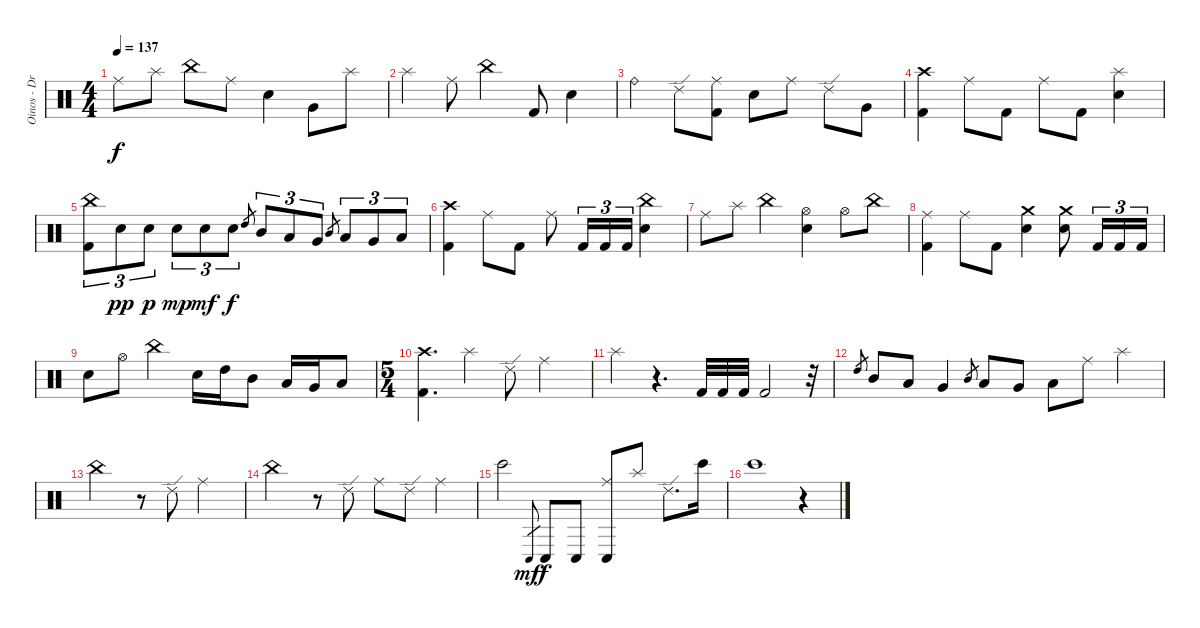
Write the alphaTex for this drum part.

\track ("Oinos - Drums" "Oinos - Dr") {instrument percussion}
\staff {score}
\articulation defaults
\ts (4 4)
\tempo 137
\clef neutral
\ks c "Ride (middle)".8{dy f} "Splash (hit)".8 "China (hit)".8 "Ride (middle)".8 "Electric Snare (hit)".4 "Very Low Tom (hit)".8 "Splash (hit)".8
|
"Splash (hit)".4 "Ride (middle)".8 "China (hit)".4 "Kick (hit) 2".8 "Electric Snare (hit)".4 |
"Ride (bell)".4 "Ride (edge) 2".8 ("Ride (middle)" "Kick (hit) 2").8 "Electric Snare (hit)".8 "Ride (middle)".8 "Ride (edge) 2".8 "Very Low Tom (hit)".8 |
("Crash high (hit)" "Kick (hit) 2").4 "Ride (middle)".8 "Kick (hit) 2".8 "Ride (middle)".8 "Kick (hit) 2".8 ("Splash (hit)" "Electric Snare (hit)").4 |
("China (hit)" "Kick (hit) 2").8{tu (3 2)} "Electric Snare (hit)".8{tu (3 2) dy pp} "Electric Snare (hit)".8{tu (3 2) dy p} "Electric Snare (hit)".8{tu (3 2) dy mp} "Electric Snare (hit)".8{tu (3 2) dy mf} "Electric Snare (hit)".8{tu (3 2) dy f} "High Tom (hit)".8{gr} "Mid Tom (hit)".8{tu (3 2)} "Low Tom (hit)".8{tu (3 2)} "Very Low Tom (hit)".8{tu (3 2)} "Mid Tom (hit)".8{gr} "Low Tom (hit)".8{tu (3 2)} "Very Low Tom (hit)".8{tu (3 2)} "Low Floor Tom (hit)".8{tu (3 2)} |
("Crash high (hit)" "Kick (hit) 2").4 "Ride (middle)".8 "Kick (hit) 2".8 "Ride (middle)".8 "Kick (hit) 2".16{tu (3 2)} "Kick (hit) 2".16{tu (3 2)} "Kick (hit) 2".16{tu (3 2)} ("China (hit)" "Electric Snare (hit)").4 |
"Ride (middle)".8 "Splash (hit)".8 "China (hit)".4 ("Hi-Hat (open)" "Electric Snare (hit)").4 "Hi-Hat (open)".8 "China (hit)".8 |
("Ride (middle)" "Kick (hit) 2").4 "Ride (middle)".8 "Kick (hit) 2".8 ("Crash medium (hit)" "Electric Snare (hit)").4 ("Crash medium (hit)" "Electric Snare (hit)").8 "Kick (hit) 2".16{tu (3 2)} "Kick (hit) 2".16{tu (3 2)} "Kick (hit) 2".16{tu (3 2)} |
"Electric Snare (hit)".8 "Hi-Hat (open)".8 "China (hit)".4 "Electric Snare (hit)".16 "High Tom (hit)".16 "Mid Tom (hit)".8 "Low Tom (hit)".16 "Very Low Tom (hit)".16 "Low Floor Tom (hit)".8 |
\ts (5 4)
("Crash high (hit)" "Kick (hit) 2").4{d} "Splash (hit)".4 "Ride (edge) 2".8 "Ride (middle)".2 |
"Splash (hit)".4 r.4{d} "Kick (hit) 2".32 "Kick (hit) 2".32 "Kick (hit) 2".32 "Kick (hit) 2".2 r.32 |
"High Tom (hit)".8{gr} "Mid Tom (hit)".8 "Low Tom (hit)".8 "Very Low Tom (hit)".4 "Mid Tom (hit)".8{gr} "Low Tom (hit)".8 "Very Low Tom (hit)".8 "Low Floor Tom (hit)".8 "Ride (middle)".8 "Splash (hit)".4 |
"China (hit)".2 r.8 "Ride (edge) 2".8 "Ride (middle)".2 |
"China (hit)".2 r.8 "Ride (edge) 2".8 "Ride (middle)".8 "Ride (edge) 2".8 "Ride (middle)".4 |
"Bongo High (hit)".2 "Conga low (hit)".8{gr dy mf} "Conga low (hit)".8{dy f} "Conga low (hit)".8 ("Conga low (hit)" "Ride (middle)").8 "Splash (hit)".8 "Ride (edge) 2".8{d} "Bongo High (hit)".16 |
"Bongo High (hit)".1 r.4
